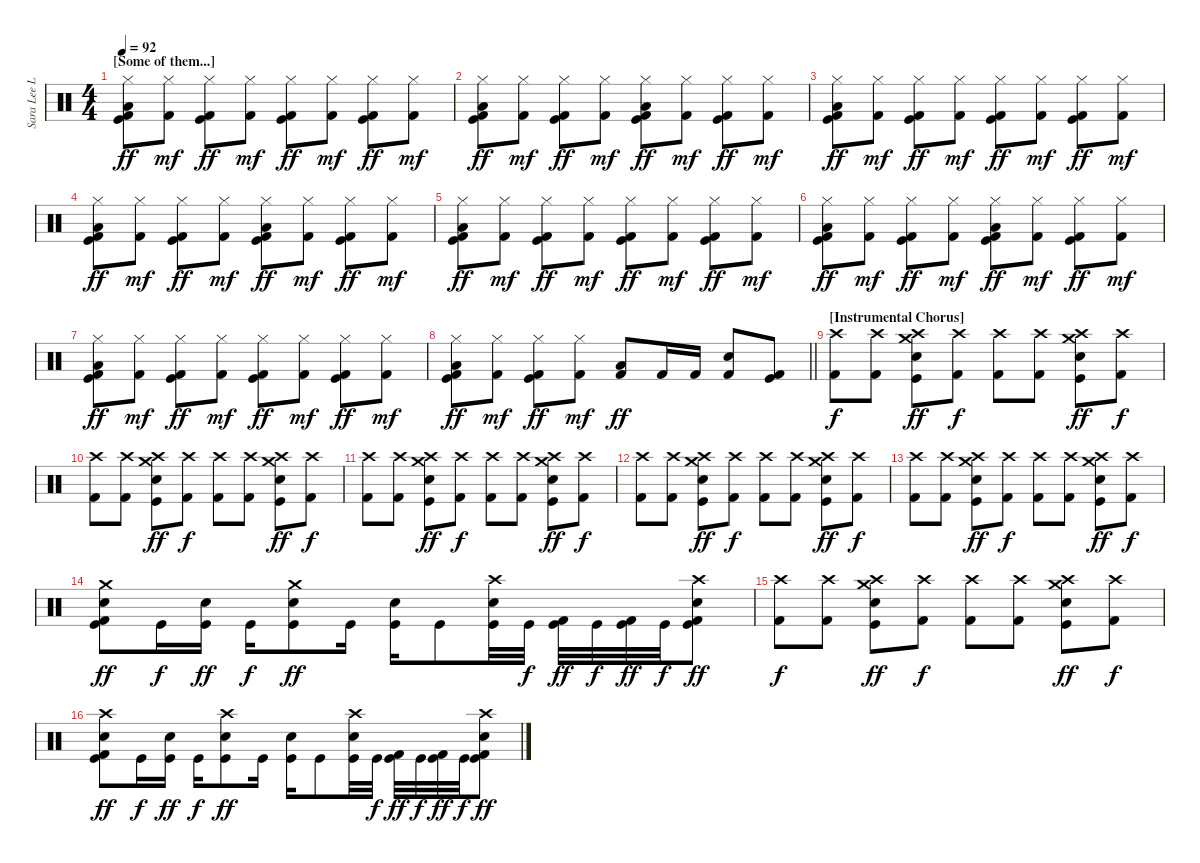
\track ("Sara Lee Lucas (Drums)" "Sara Lee L") {instrument percussion}
\staff {score}
\articulation defaults
\ts (4 4)
\section ("" "[Some of them...]")
\tempo 92
\clef neutral
\ks c
("Hi-Hat (closed)" "Low Floor Tom (hit)" "Kick (hit) 2" "Kick (hit)").8{dy ff} ("Hi-Hat (closed)" "Kick (hit) 2").8{dy mf} ("Hi-Hat (closed)" "Kick (hit) 2" "Kick (hit)").8{dy ff} ("Hi-Hat (closed)" "Kick (hit) 2").8{dy mf} ("Hi-Hat (closed)" "Kick (hit) 2" "Kick (hit)").8{dy ff} ("Hi-Hat (closed)" "Kick (hit) 2").8{dy mf} ("Hi-Hat (closed)" "Kick (hit) 2" "Kick (hit)").8{dy ff} ("Hi-Hat (closed)" "Kick (hit) 2").8{dy mf} |
("Hi-Hat (closed)" "Low Floor Tom (hit)" "Kick (hit) 2" "Kick (hit)").8{dy ff} ("Hi-Hat (closed)" "Kick (hit) 2").8{dy mf} ("Hi-Hat (closed)" "Kick (hit) 2" "Kick (hit)").8{dy ff} ("Hi-Hat (closed)" "Kick (hit) 2").8{dy mf} ("Hi-Hat (closed)" "Low Floor Tom (hit)" "Kick (hit) 2" "Kick (hit)").8{dy ff} ("Hi-Hat (closed)" "Kick (hit) 2").8{dy mf} ("Hi-Hat (closed)" "Kick (hit) 2" "Kick (hit)").8{dy ff} ("Hi-Hat (closed)" "Kick (hit) 2").8{dy mf} |
("Hi-Hat (closed)" "Low Floor Tom (hit)" "Kick (hit) 2" "Kick (hit)").8{dy ff} ("Hi-Hat (closed)" "Kick (hit) 2").8{dy mf} ("Hi-Hat (closed)" "Kick (hit) 2" "Kick (hit)").8{dy ff} ("Hi-Hat (closed)" "Kick (hit) 2").8{dy mf} ("Hi-Hat (closed)" "Kick (hit) 2" "Kick (hit)").8{dy ff} ("Hi-Hat (closed)" "Kick (hit) 2").8{dy mf} ("Hi-Hat (closed)" "Kick (hit) 2" "Kick (hit)").8{dy ff} ("Hi-Hat (closed)" "Kick (hit) 2").8{dy mf} |
("Hi-Hat (closed)" "Low Floor Tom (hit)" "Kick (hit) 2" "Kick (hit)").8{dy ff} ("Hi-Hat (closed)" "Kick (hit) 2").8{dy mf} ("Hi-Hat (closed)" "Kick (hit) 2" "Kick (hit)").8{dy ff} ("Hi-Hat (closed)" "Kick (hit) 2").8{dy mf} ("Hi-Hat (closed)" "Low Floor Tom (hit)" "Kick (hit) 2" "Kick (hit)").8{dy ff} ("Hi-Hat (closed)" "Kick (hit) 2").8{dy mf} ("Hi-Hat (closed)" "Kick (hit) 2" "Kick (hit)").8{dy ff} ("Hi-Hat (closed)" "Kick (hit) 2").8{dy mf} |
("Hi-Hat (closed)" "Low Floor Tom (hit)" "Kick (hit) 2" "Kick (hit)").8{dy ff} ("Hi-Hat (closed)" "Kick (hit) 2").8{dy mf} ("Hi-Hat (closed)" "Kick (hit) 2" "Kick (hit)").8{dy ff} ("Hi-Hat (closed)" "Kick (hit) 2").8{dy mf} ("Hi-Hat (closed)" "Kick (hit) 2" "Kick (hit)").8{dy ff} ("Hi-Hat (closed)" "Kick (hit) 2").8{dy mf} ("Hi-Hat (closed)" "Kick (hit) 2" "Kick (hit)").8{dy ff} ("Hi-Hat (closed)" "Kick (hit) 2").8{dy mf} |
("Hi-Hat (closed)" "Low Floor Tom (hit)" "Kick (hit) 2" "Kick (hit)").8{dy ff} ("Hi-Hat (closed)" "Kick (hit) 2").8{dy mf} ("Hi-Hat (closed)" "Kick (hit) 2" "Kick (hit)").8{dy ff} ("Hi-Hat (closed)" "Kick (hit) 2").8{dy mf} ("Hi-Hat (closed)" "Low Floor Tom (hit)" "Kick (hit) 2" "Kick (hit)").8{dy ff} ("Hi-Hat (closed)" "Kick (hit) 2").8{dy mf} ("Hi-Hat (closed)" "Kick (hit) 2" "Kick (hit)").8{dy ff} ("Hi-Hat (closed)" "Kick (hit) 2").8{dy mf} |
("Hi-Hat (closed)" "Low Floor Tom (hit)" "Kick (hit) 2" "Kick (hit)").8{dy ff} ("Hi-Hat (closed)" "Kick (hit) 2").8{dy mf} ("Hi-Hat (closed)" "Kick (hit) 2" "Kick (hit)").8{dy ff} ("Hi-Hat (closed)" "Kick (hit) 2").8{dy mf} ("Hi-Hat (closed)" "Kick (hit) 2" "Kick (hit)").8{dy ff} ("Hi-Hat (closed)" "Kick (hit) 2").8{dy mf} ("Hi-Hat (closed)" "Kick (hit) 2" "Kick (hit)").8{dy ff} ("Hi-Hat (closed)" "Kick (hit) 2").8{dy mf} |
\barLineRight lightlight
("Hi-Hat (closed)" "Low Floor Tom (hit)" "Kick (hit) 2" "Kick (hit)").8{dy ff} ("Hi-Hat (closed)" "Kick (hit) 2").8{dy mf} ("Hi-Hat (closed)" "Kick (hit) 2" "Kick (hit)").8{dy ff} ("Hi-Hat (closed)" "Kick (hit) 2").8{dy mf} ("Low Floor Tom (hit)" "Kick (hit) 2").8{dy ff} "Kick (hit) 2".16 "Kick (hit) 2".16 ("Snare (hit) 2" "Kick (hit) 2").8 ("Kick (hit) 2" "Kick (hit)").8 |
\section ("" "[Instrumental Chorus]")
("Crash high (hit)" "Kick (hit) 2").8{dy f} ("Crash high (hit)" "Kick (hit) 2").8 ("Crash high (hit)" "Crash medium (hit)" "Snare (hit) 2" "Kick (hit)").8{dy ff} ("Crash high (hit)" "Kick (hit) 2").8{dy f} ("Crash high (hit)" "Kick (hit) 2").8 ("Crash high (hit)" "Kick (hit) 2").8 ("Crash high (hit)" "Crash medium (hit)" "Snare (hit) 2" "Kick (hit)").8{dy ff} ("Crash high (hit)" "Kick (hit) 2").8{dy f} |
("Crash high (hit)" "Kick (hit) 2").8 ("Crash high (hit)" "Kick (hit) 2").8 ("Crash high (hit)" "Crash medium (hit)" "Snare (hit) 2" "Kick (hit)").8{dy ff} ("Crash high (hit)" "Kick (hit) 2").8{dy f} ("Crash high (hit)" "Kick (hit) 2").8 ("Crash high (hit)" "Kick (hit) 2").8 ("Crash high (hit)" "Crash medium (hit)" "Snare (hit) 2" "Kick (hit)").8{dy ff} ("Crash high (hit)" "Kick (hit) 2").8{dy f} |
("Crash high (hit)" "Kick (hit) 2").8 ("Crash high (hit)" "Kick (hit) 2").8 ("Crash high (hit)" "Crash medium (hit)" "Snare (hit) 2" "Kick (hit)").8{dy ff} ("Crash high (hit)" "Kick (hit) 2").8{dy f} ("Crash high (hit)" "Kick (hit) 2").8 ("Crash high (hit)" "Kick (hit) 2").8 ("Crash high (hit)" "Crash medium (hit)" "Snare (hit) 2" "Kick (hit)").8{dy ff} ("Crash high (hit)" "Kick (hit) 2").8{dy f} |
("Crash high (hit)" "Kick (hit) 2").8 ("Crash high (hit)" "Kick (hit) 2").8 ("Crash high (hit)" "Crash medium (hit)" "Snare (hit) 2" "Kick (hit)").8{dy ff} ("Crash high (hit)" "Kick (hit) 2").8{dy f} ("Crash high (hit)" "Kick (hit) 2").8 ("Crash high (hit)" "Kick (hit) 2").8 ("Crash high (hit)" "Crash medium (hit)" "Snare (hit) 2" "Kick (hit)").8{dy ff} ("Crash high (hit)" "Kick (hit) 2").8{dy f} |
("Crash high (hit)" "Kick (hit) 2").8 ("Crash high (hit)" "Kick (hit) 2").8 ("Crash high (hit)" "Crash medium (hit)" "Snare (hit) 2" "Kick (hit)").8{dy ff} ("Crash high (hit)" "Kick (hit) 2").8{dy f} ("Crash high (hit)" "Kick (hit) 2").8 ("Crash high (hit)" "Kick (hit) 2").8 ("Crash high (hit)" "Crash medium (hit)" "Snare (hit) 2" "Kick (hit)").8{dy ff} ("Crash high (hit)" "Kick (hit) 2").8{dy f} |
("Crash medium (hit)" "Snare (hit) 2" "Kick (hit) 2" "Kick (hit)").8{dy ff} "Kick (hit)".16{dy f} ("Snare (hit) 2" "Kick (hit)").16{dy ff} "Kick (hit)".16{dy f} ("Crash medium (hit)" "Snare (hit) 2" "Kick (hit)").8{dy ff} "Kick (hit)".16 ("Snare (hit) 2" "Kick (hit)").16 "Kick (hit)".8 ("Crash high (hit)" "Snare (hit) 2" "Kick (hit)").32 "Kick (hit)".32{dy f} ("Kick (hit) 2" "Kick (hit)").32{dy ff} "Kick (hit)".32{dy f} ("Kick (hit) 2" "Kick (hit)").32{dy ff} "Kick (hit)".32{dy f} ("Crash high (hit)" "Snare (hit) 2" "Kick (hit) 2" "Kick (hit)").8{dy ff} |
("Crash high (hit)" "Kick (hit) 2").8{dy f} ("Crash high (hit)" "Kick (hit) 2").8 ("Crash high (hit)" "Crash medium (hit)" "Snare (hit) 2" "Kick (hit)").8{dy ff} ("Crash high (hit)" "Kick (hit) 2").8{dy f} ("Crash high (hit)" "Kick (hit) 2").8 ("Crash high (hit)" "Kick (hit) 2").8 ("Crash high (hit)" "Crash medium (hit)" "Snare (hit) 2" "Kick (hit)").8{dy ff} ("Crash high (hit)" "Kick (hit) 2").8{dy f} |
("Crash high (hit)" "Snare (hit) 2" "Kick (hit) 2" "Kick (hit)").8{dy ff} "Kick (hit)".16{dy f} ("Snare (hit) 2" "Kick (hit)").16{dy ff} "Kick (hit)".16{dy f} ("Crash high (hit)" "Snare (hit) 2" "Kick (hit)").8{dy ff} "Kick (hit)".16 ("Snare (hit) 2" "Kick (hit)").16 "Kick (hit)".8 ("Crash high (hit)" "Snare (hit) 2" "Kick (hit)").32 "Kick (hit)".32{dy f} ("Kick (hit) 2" "Kick (hit)").32{dy ff} "Kick (hit)".32{dy f} ("Kick (hit) 2" "Kick (hit)").32{dy ff} "Kick (hit)".32{dy f} ("Crash high (hit)" "Snare (hit) 2" "Kick (hit) 2" "Kick (hit)").8{dy ff}
